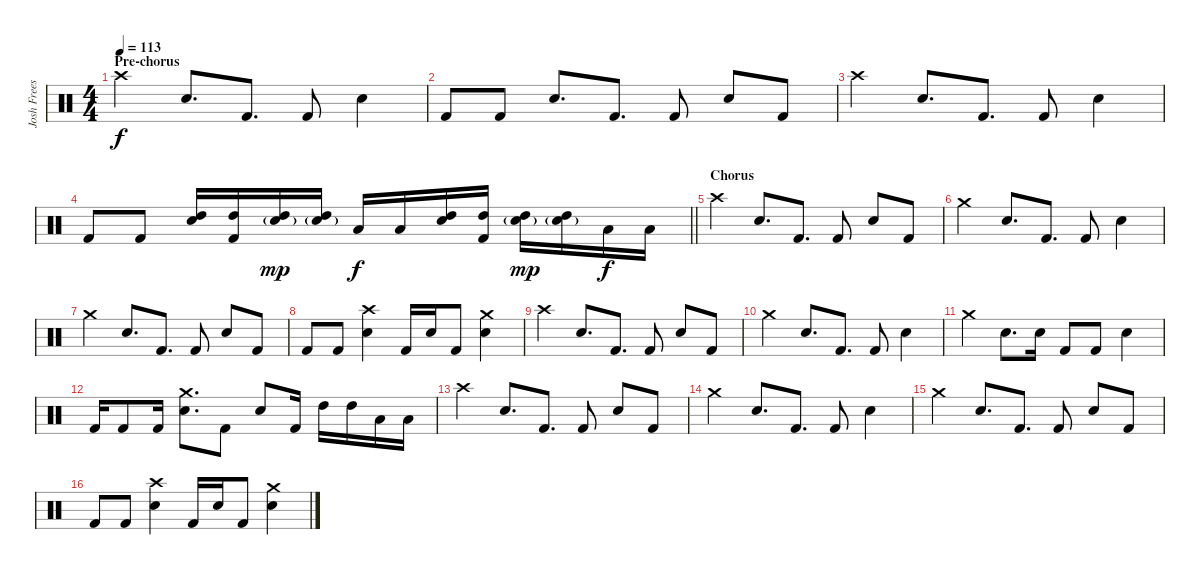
\track ("Josh Freese (Studio Drummer)" "Josh Frees") {instrument percussion}
\staff {score}
\articulation defaults
\ts (4 4)
\section ("" "Pre-chorus")
\tempo 113
\clef neutral
\ks c "Crash high (hit)".4{dy f volume 13} "Electric Snare (hit)".8{d} "Kick (hit) 2".8{d} "Kick (hit) 2".8 "Electric Snare (hit)".4
|
"Kick (hit) 2".8 "Kick (hit) 2".8 "Electric Snare (hit)".8{d} "Kick (hit) 2".8{d} "Kick (hit) 2".8 "Electric Snare (hit)".8 "Kick (hit) 2".8 |
"Crash high (hit)".4 "Electric Snare (hit)".8{d} "Kick (hit) 2".8{d} "Kick (hit) 2".8 "Electric Snare (hit)".4 |
\barLineRight lightlight "Kick (hit) 2".8 "Kick (hit) 2".8
("High Tom (hit)" "Electric Snare (hit)").16 ("High Tom (hit)" "Kick (hit) 2").16 ("High Tom (hit)" "Electric Snare (hit)"{g}).16{dy mp} ("High Tom (hit)" "Electric Snare (hit)"{g}).16 "Low Tom (hit)".16{dy f} "Low Tom (hit)".16 ("High Tom (hit)" "Electric Snare (hit)").16 ("High Tom (hit)" "Kick (hit) 2").16 ("High Tom (hit)" "Electric Snare (hit)"{g}).16{dy mp} ("High Tom (hit)" "Electric Snare (hit)"{g}).16 "Low Tom (hit)".16{dy f} "Low Tom (hit)".16 |
\section ("" "Chorus")
"Crash high (hit)".4 "Electric Snare (hit)".8{d} "Kick (hit) 2".8{d} "Kick (hit) 2".8 "Electric Snare (hit)".8 "Kick (hit) 2".8 |
"Crash medium (hit)".4 "Electric Snare (hit)".8{d} "Kick (hit) 2".8{d} "Kick (hit) 2".8 "Electric Snare (hit)".4 |
"Crash medium (hit)".4 "Electric Snare (hit)".8{d} "Kick (hit) 2".8{d} "Kick (hit) 2".8 "Electric Snare (hit)".8 "Kick (hit) 2".8 |
"Kick (hit) 2".8 "Kick (hit) 2".8 ("Crash high (hit)" "Electric Snare (hit)").4 "Kick (hit) 2".16 "Electric Snare (hit)".16 "Kick (hit) 2".8 ("Crash medium (hit)" "Electric Snare (hit)").4 |
"Crash high (hit)".4 "Electric Snare (hit)".8{d} "Kick (hit) 2".8{d} "Kick (hit) 2".8 "Electric Snare (hit)".8 "Kick (hit) 2".8 |
"Crash medium (hit)".4 "Electric Snare (hit)".8{d} "Kick (hit) 2".8{d} "Kick (hit) 2".8 "Electric Snare (hit)".4 |
"Crash medium (hit)".4 "Electric Snare (hit)".8{d} "Electric Snare (hit)".16 "Kick (hit) 2".8 "Kick (hit) 2".8 "Electric Snare (hit)".4 |
"Kick (hit) 2".16 "Kick (hit) 2".8 "Kick (hit) 2".16 ("Electric Snare (hit)" "Crash medium (hit)").8{d} "Kick (hit) 2".8 "Electric Snare (hit)".8 "Kick (hit) 2".16 "High Tom (hit)".16 "High Tom (hit)".16 "Low Tom (hit)".16 "Low Tom (hit)".16 |
"Crash high (hit)".4 "Electric Snare (hit)".8{d} "Kick (hit) 2".8{d} "Kick (hit) 2".8 "Electric Snare (hit)".8 "Kick (hit) 2".8 |
"Crash medium (hit)".4 "Electric Snare (hit)".8{d} "Kick (hit) 2".8{d} "Kick (hit) 2".8 "Electric Snare (hit)".4 |
"Crash medium (hit)".4 "Electric Snare (hit)".8{d} "Kick (hit) 2".8{d} "Kick (hit) 2".8 "Electric Snare (hit)".8 "Kick (hit) 2".8 |
"Kick (hit) 2".8 "Kick (hit) 2".8 ("Crash high (hit)" "Electric Snare (hit)").4 "Kick (hit) 2".16 "Electric Snare (hit)".16 "Kick (hit) 2".8 ("Crash medium (hit)" "Electric Snare (hit)").4
